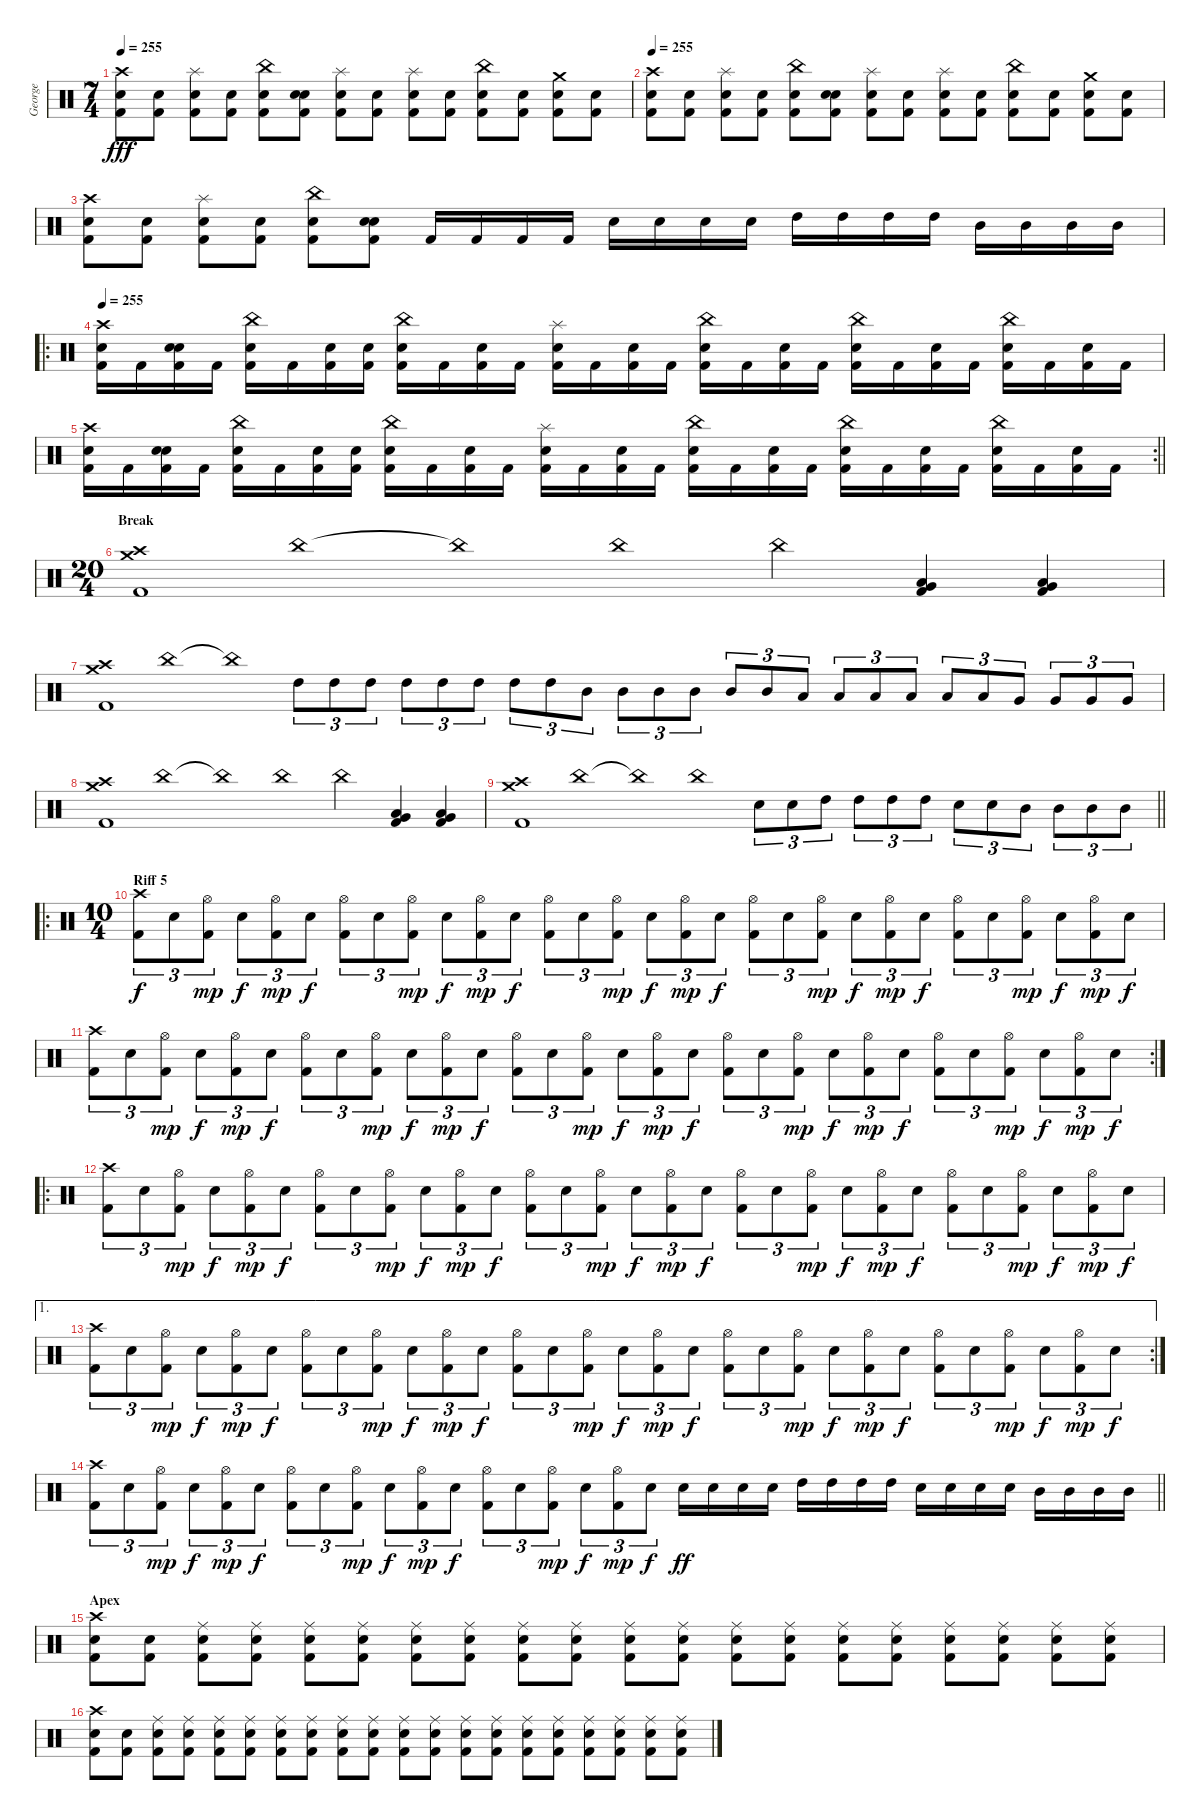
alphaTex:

\track ("George" "George") {instrument percussion}
\staff {score}
\articulation defaults
\ts (7 4)
\tempo 255
\clef neutral
\ks c
("Crash high (hit)" "Snare (hit) 2" "Kick (hit) 2").8{dy fff} ("Snare (hit) 2" "Kick (hit) 2").8 ("Splash (hit)" "Snare (hit) 2" "Kick (hit) 2").8 ("Snare (hit) 2" "Kick (hit) 2").8 ("China (hit)" "Snare (hit) 2" "Kick (hit) 2").8 ("Snare (hit)" "Snare (hit) 2" "Kick (hit) 2").8 ("Splash (hit)" "Snare (hit) 2" "Kick (hit) 2").8 ("Snare (hit) 2" "Kick (hit) 2").8 ("Splash (hit)" "Snare (hit) 2" "Kick (hit) 2").8 ("Snare (hit) 2" "Kick (hit) 2").8 ("China (hit)" "Snare (hit) 2" "Kick (hit) 2").8 ("Snare (hit) 2" "Kick (hit) 2").8 ("Crash medium (hit)" "Snare (hit) 2" "Kick (hit) 2").8 ("Snare (hit) 2" "Kick (hit) 2").8 |
\tempo 255
("Crash high (hit)" "Snare (hit) 2" "Kick (hit) 2").8 ("Snare (hit) 2" "Kick (hit) 2").8 ("Splash (hit)" "Snare (hit) 2" "Kick (hit) 2").8 ("Snare (hit) 2" "Kick (hit) 2").8 ("China (hit)" "Snare (hit) 2" "Kick (hit) 2").8 ("Snare (hit)" "Snare (hit) 2" "Kick (hit) 2").8 ("Splash (hit)" "Snare (hit) 2" "Kick (hit) 2").8 ("Snare (hit) 2" "Kick (hit) 2").8 ("Splash (hit)" "Snare (hit) 2" "Kick (hit) 2").8 ("Snare (hit) 2" "Kick (hit) 2").8 ("China (hit)" "Snare (hit) 2" "Kick (hit) 2").8 ("Snare (hit) 2" "Kick (hit) 2").8 ("Crash medium (hit)" "Snare (hit) 2" "Kick (hit) 2").8 ("Snare (hit) 2" "Kick (hit) 2").8 |
("Crash high (hit)" "Snare (hit) 2" "Kick (hit) 2").8 ("Snare (hit) 2" "Kick (hit) 2").8 ("Splash (hit)" "Snare (hit) 2" "Kick (hit) 2").8 ("Snare (hit) 2" "Kick (hit) 2").8 ("China (hit)" "Snare (hit) 2" "Kick (hit) 2").8 ("Snare (hit)" "Snare (hit) 2" "Kick (hit) 2").8 "Kick (hit) 2".16 "Kick (hit) 2".16 "Kick (hit) 2".16 "Kick (hit) 2".16 "Snare (hit) 2".16 "Snare (hit) 2".16 "Snare (hit) 2".16 "Snare (hit) 2".16 "High Tom (hit)".16 "High Tom (hit)".16 "High Tom (hit)".16 "High Tom (hit)".16 "Mid Tom (hit)".16 "Mid Tom (hit)".16 "Mid Tom (hit)".16 "Mid Tom (hit)".16 |
\ro
\tempo 255
("Crash high (hit)" "Snare (hit) 2" "Kick (hit) 2").16 "Kick (hit) 2".16 ("Snare (hit)" "Snare (hit) 2" "Kick (hit) 2").16 "Kick (hit) 2".16 ("China (hit)" "Snare (hit) 2" "Kick (hit) 2").16 "Kick (hit) 2".16 ("Snare (hit) 2" "Kick (hit) 2").16 ("Snare (hit)" "Kick (hit) 2").16 ("China (hit)" "Snare (hit) 2" "Kick (hit) 2").16 "Kick (hit) 2".16 ("Snare (hit) 2" "Kick (hit) 2").16 "Kick (hit) 2".16 ("Splash (hit)" "Snare (hit) 2" "Kick (hit) 2").16 "Kick (hit) 2".16 ("Snare (hit) 2" "Kick (hit) 2").16 "Kick (hit) 2".16 ("China (hit)" "Snare (hit) 2" "Kick (hit) 2").16 "Kick (hit) 2".16 ("Snare (hit) 2" "Kick (hit) 2").16 "Kick (hit) 2".16 ("China (hit)" "Snare (hit) 2" "Kick (hit) 2").16 "Kick (hit) 2".16 ("Snare (hit) 2" "Kick (hit) 2").16 "Kick (hit) 2".16 ("China (hit)" "Snare (hit) 2" "Kick (hit) 2").16 "Kick (hit) 2".16 ("Snare (hit) 2" "Kick (hit) 2").16 "Kick (hit) 2".16 |
\rc 2
\barLineRight lightlight
("Crash high (hit)" "Snare (hit) 2" "Kick (hit) 2").16 "Kick (hit) 2".16 ("Snare (hit)" "Snare (hit) 2" "Kick (hit) 2").16 "Kick (hit) 2".16 ("China (hit)" "Snare (hit) 2" "Kick (hit) 2").16 "Kick (hit) 2".16 ("Snare (hit) 2" "Kick (hit) 2").16 ("Snare (hit)" "Kick (hit) 2").16 ("China (hit)" "Snare (hit) 2" "Kick (hit) 2").16 "Kick (hit) 2".16 ("Snare (hit) 2" "Kick (hit) 2").16 "Kick (hit) 2".16 ("Splash (hit)" "Snare (hit) 2" "Kick (hit) 2").16 "Kick (hit) 2".16 ("Snare (hit) 2" "Kick (hit) 2").16 "Kick (hit) 2".16 ("China (hit)" "Snare (hit) 2" "Kick (hit) 2").16 "Kick (hit) 2".16 ("Snare (hit) 2" "Kick (hit) 2").16 "Kick (hit) 2".16 ("China (hit)" "Snare (hit) 2" "Kick (hit) 2").16 "Kick (hit) 2".16 ("Snare (hit) 2" "Kick (hit) 2").16 "Kick (hit) 2".16 ("China (hit)" "Snare (hit) 2" "Kick (hit) 2").16 "Kick (hit) 2".16 ("Snare (hit) 2" "Kick (hit) 2").16 "Kick (hit) 2".16 |
\ts (20 4)
\section ("" "Break")
("Crash high (hit)" "Crash medium (hit)" "Kick (hit) 2").1 "China (hit)".1 "China (hit)"{t}.1 "China (hit)".1 "China (hit)".2 ("Low Tom (hit)" "Very Low Tom (hit)" "Kick (hit) 2").4 ("Low Tom (hit)" "Very Low Tom (hit)" "Kick (hit) 2").4 |
("Crash high (hit)" "Crash medium (hit)" "Kick (hit) 2").1 "China (hit)".1 "China (hit)"{t}.1 "High Tom (hit)".8{tu (3 2)} "High Tom (hit)".8{tu (3 2)} "High Tom (hit)".8{tu (3 2)} "High Tom (hit)".8{tu (3 2)} "High Tom (hit)".8{tu (3 2)} "High Tom (hit)".8{tu (3 2)} "High Tom (hit)".8{tu (3 2)} "High Tom (hit)".8{tu (3 2)} "Mid Tom (hit)".8{tu (3 2)} "Mid Tom (hit)".8{tu (3 2)} "Mid Tom (hit)".8{tu (3 2)} "Mid Tom (hit)".8{tu (3 2)} "Mid Tom (hit)".8{tu (3 2)} "Mid Tom (hit)".8{tu (3 2)} "Low Tom (hit)".8{tu (3 2)} "Low Tom (hit)".8{tu (3 2)} "Low Tom (hit)".8{tu (3 2)} "Low Tom (hit)".8{tu (3 2)} "Low Tom (hit)".8{tu (3 2)} "Low Tom (hit)".8{tu (3 2)} "Very Low Tom (hit)".8{tu (3 2)} "Very Low Tom (hit)".8{tu (3 2)} "Very Low Tom (hit)".8{tu (3 2)} "Very Low Tom (hit)".8{tu (3 2)} |
("Crash high (hit)" "Crash medium (hit)" "Kick (hit) 2").1 "China (hit)".1 "China (hit)"{t}.1 "China (hit)".1 "China (hit)".2 ("Low Tom (hit)" "Very Low Tom (hit)" "Kick (hit) 2").4 ("Low Tom (hit)" "Very Low Tom (hit)" "Kick (hit) 2").4 |
\barLineRight lightlight
("Crash high (hit)" "Crash medium (hit)" "Kick (hit) 2").1 "China (hit)".1 "China (hit)"{t}.1 "China (hit)".1 "Snare (hit) 2".8{tu (3 2)} "Snare (hit) 2".8{tu (3 2)} "High Tom (hit)".8{tu (3 2)} "High Tom (hit)".8{tu (3 2)} "High Tom (hit)".8{tu (3 2)} "High Tom (hit)".8{tu (3 2)} "Snare (hit) 2".8{tu (3 2)} "Snare (hit) 2".8{tu (3 2)} "Mid Tom (hit)".8{tu (3 2)} "Mid Tom (hit)".8{tu (3 2)} "Mid Tom (hit)".8{tu (3 2)} "Mid Tom (hit)".8{tu (3 2)} |
\ro
\ts (10 4)
\section ("" "Riff 5")
("Crash high (hit)" "Kick (hit) 2").8{tu (3 2) dy f} "Snare (hit) 2".8{tu (3 2)} ("Hi-Hat (open)" "Kick (hit) 2").8{tu (3 2) dy mp} "Snare (hit) 2".8{tu (3 2) dy f} ("Hi-Hat (open)" "Kick (hit) 2").8{tu (3 2) dy mp} "Snare (hit) 2".8{tu (3 2) dy f} ("Hi-Hat (open)" "Kick (hit) 2").8{tu (3 2)} "Snare (hit) 2".8{tu (3 2)} ("Hi-Hat (open)" "Kick (hit) 2").8{tu (3 2) dy mp} "Snare (hit) 2".8{tu (3 2) dy f} ("Hi-Hat (open)" "Kick (hit) 2").8{tu (3 2) dy mp} "Snare (hit) 2".8{tu (3 2) dy f} ("Hi-Hat (open)" "Kick (hit) 2").8{tu (3 2)} "Snare (hit) 2".8{tu (3 2)} ("Hi-Hat (open)" "Kick (hit) 2").8{tu (3 2) dy mp} "Snare (hit) 2".8{tu (3 2) dy f} ("Hi-Hat (open)" "Kick (hit) 2").8{tu (3 2) dy mp} "Snare (hit) 2".8{tu (3 2) dy f} ("Hi-Hat (open)" "Kick (hit) 2").8{tu (3 2)} "Snare (hit) 2".8{tu (3 2)} ("Hi-Hat (open)" "Kick (hit) 2").8{tu (3 2) dy mp} "Snare (hit) 2".8{tu (3 2) dy f} ("Hi-Hat (open)" "Kick (hit) 2").8{tu (3 2) dy mp} "Snare (hit) 2".8{tu (3 2) dy f} ("Hi-Hat (open)" "Kick (hit) 2").8{tu (3 2)} "Snare (hit) 2".8{tu (3 2)} ("Hi-Hat (open)" "Kick (hit) 2").8{tu (3 2) dy mp} "Snare (hit) 2".8{tu (3 2) dy f} ("Hi-Hat (open)" "Kick (hit) 2").8{tu (3 2) dy mp} "Snare (hit) 2".8{tu (3 2) dy f} |
\rc 2
("Crash high (hit)" "Kick (hit) 2").8{tu (3 2)} "Snare (hit) 2".8{tu (3 2)} ("Hi-Hat (open)" "Kick (hit) 2").8{tu (3 2) dy mp} "Snare (hit) 2".8{tu (3 2) dy f} ("Hi-Hat (open)" "Kick (hit) 2").8{tu (3 2) dy mp} "Snare (hit) 2".8{tu (3 2) dy f} ("Hi-Hat (open)" "Kick (hit) 2").8{tu (3 2)} "Snare (hit) 2".8{tu (3 2)} ("Hi-Hat (open)" "Kick (hit) 2").8{tu (3 2) dy mp} "Snare (hit) 2".8{tu (3 2) dy f} ("Hi-Hat (open)" "Kick (hit) 2").8{tu (3 2) dy mp} "Snare (hit) 2".8{tu (3 2) dy f} ("Hi-Hat (open)" "Kick (hit) 2").8{tu (3 2)} "Snare (hit) 2".8{tu (3 2)} ("Hi-Hat (open)" "Kick (hit) 2").8{tu (3 2) dy mp} "Snare (hit) 2".8{tu (3 2) dy f} ("Hi-Hat (open)" "Kick (hit) 2").8{tu (3 2) dy mp} "Snare (hit) 2".8{tu (3 2) dy f} ("Hi-Hat (open)" "Kick (hit) 2").8{tu (3 2)} "Snare (hit) 2".8{tu (3 2)} ("Hi-Hat (open)" "Kick (hit) 2").8{tu (3 2) dy mp} "Snare (hit) 2".8{tu (3 2) dy f} ("Hi-Hat (open)" "Kick (hit) 2").8{tu (3 2) dy mp} "Snare (hit) 2".8{tu (3 2) dy f} ("Hi-Hat (open)" "Kick (hit) 2").8{tu (3 2)} "Snare (hit) 2".8{tu (3 2)} ("Hi-Hat (open)" "Kick (hit) 2").8{tu (3 2) dy mp} "Snare (hit) 2".8{tu (3 2) dy f} ("Hi-Hat (open)" "Kick (hit) 2").8{tu (3 2) dy mp} "Snare (hit) 2".8{tu (3 2) dy f} |
\ro
("Crash high (hit)" "Kick (hit) 2").8{tu (3 2)} "Snare (hit) 2".8{tu (3 2)} ("Hi-Hat (open)" "Kick (hit) 2").8{tu (3 2) dy mp} "Snare (hit) 2".8{tu (3 2) dy f} ("Hi-Hat (open)" "Kick (hit) 2").8{tu (3 2) dy mp} "Snare (hit) 2".8{tu (3 2) dy f} ("Hi-Hat (open)" "Kick (hit) 2").8{tu (3 2)} "Snare (hit) 2".8{tu (3 2)} ("Hi-Hat (open)" "Kick (hit) 2").8{tu (3 2) dy mp} "Snare (hit) 2".8{tu (3 2) dy f} ("Hi-Hat (open)" "Kick (hit) 2").8{tu (3 2) dy mp} "Snare (hit) 2".8{tu (3 2) dy f} ("Hi-Hat (open)" "Kick (hit) 2").8{tu (3 2)} "Snare (hit) 2".8{tu (3 2)} ("Hi-Hat (open)" "Kick (hit) 2").8{tu (3 2) dy mp} "Snare (hit) 2".8{tu (3 2) dy f} ("Hi-Hat (open)" "Kick (hit) 2").8{tu (3 2) dy mp} "Snare (hit) 2".8{tu (3 2) dy f} ("Hi-Hat (open)" "Kick (hit) 2").8{tu (3 2)} "Snare (hit) 2".8{tu (3 2)} ("Hi-Hat (open)" "Kick (hit) 2").8{tu (3 2) dy mp} "Snare (hit) 2".8{tu (3 2) dy f} ("Hi-Hat (open)" "Kick (hit) 2").8{tu (3 2) dy mp} "Snare (hit) 2".8{tu (3 2) dy f} ("Hi-Hat (open)" "Kick (hit) 2").8{tu (3 2)} "Snare (hit) 2".8{tu (3 2)} ("Hi-Hat (open)" "Kick (hit) 2").8{tu (3 2) dy mp} "Snare (hit) 2".8{tu (3 2) dy f} ("Hi-Hat (open)" "Kick (hit) 2").8{tu (3 2) dy mp} "Snare (hit) 2".8{tu (3 2) dy f} |
\ae 1
\rc 2
("Crash high (hit)" "Kick (hit) 2").8{tu (3 2)} "Snare (hit) 2".8{tu (3 2)} ("Hi-Hat (open)" "Kick (hit) 2").8{tu (3 2) dy mp} "Snare (hit) 2".8{tu (3 2) dy f} ("Hi-Hat (open)" "Kick (hit) 2").8{tu (3 2) dy mp} "Snare (hit) 2".8{tu (3 2) dy f} ("Hi-Hat (open)" "Kick (hit) 2").8{tu (3 2)} "Snare (hit) 2".8{tu (3 2)} ("Hi-Hat (open)" "Kick (hit) 2").8{tu (3 2) dy mp} "Snare (hit) 2".8{tu (3 2) dy f} ("Hi-Hat (open)" "Kick (hit) 2").8{tu (3 2) dy mp} "Snare (hit) 2".8{tu (3 2) dy f} ("Hi-Hat (open)" "Kick (hit) 2").8{tu (3 2)} "Snare (hit) 2".8{tu (3 2)} ("Hi-Hat (open)" "Kick (hit) 2").8{tu (3 2) dy mp} "Snare (hit) 2".8{tu (3 2) dy f} ("Hi-Hat (open)" "Kick (hit) 2").8{tu (3 2) dy mp} "Snare (hit) 2".8{tu (3 2) dy f} ("Hi-Hat (open)" "Kick (hit) 2").8{tu (3 2)} "Snare (hit) 2".8{tu (3 2)} ("Hi-Hat (open)" "Kick (hit) 2").8{tu (3 2) dy mp} "Snare (hit) 2".8{tu (3 2) dy f} ("Hi-Hat (open)" "Kick (hit) 2").8{tu (3 2) dy mp} "Snare (hit) 2".8{tu (3 2) dy f} ("Hi-Hat (open)" "Kick (hit) 2").8{tu (3 2)} "Snare (hit) 2".8{tu (3 2)} ("Hi-Hat (open)" "Kick (hit) 2").8{tu (3 2) dy mp} "Snare (hit) 2".8{tu (3 2) dy f} ("Hi-Hat (open)" "Kick (hit) 2").8{tu (3 2) dy mp} "Snare (hit) 2".8{tu (3 2) dy f} |
\barLineRight lightlight
("Crash high (hit)" "Kick (hit) 2").8{tu (3 2)} "Snare (hit) 2".8{tu (3 2)} ("Hi-Hat (open)" "Kick (hit) 2").8{tu (3 2) dy mp} "Snare (hit) 2".8{tu (3 2) dy f} ("Hi-Hat (open)" "Kick (hit) 2").8{tu (3 2) dy mp} "Snare (hit) 2".8{tu (3 2) dy f} ("Hi-Hat (open)" "Kick (hit) 2").8{tu (3 2)} "Snare (hit) 2".8{tu (3 2)} ("Hi-Hat (open)" "Kick (hit) 2").8{tu (3 2) dy mp} "Snare (hit) 2".8{tu (3 2) dy f} ("Hi-Hat (open)" "Kick (hit) 2").8{tu (3 2) dy mp} "Snare (hit) 2".8{tu (3 2) dy f} ("Hi-Hat (open)" "Kick (hit) 2").8{tu (3 2)} "Snare (hit) 2".8{tu (3 2)} ("Hi-Hat (open)" "Kick (hit) 2").8{tu (3 2) dy mp} "Snare (hit) 2".8{tu (3 2) dy f} ("Hi-Hat (open)" "Kick (hit) 2").8{tu (3 2) dy mp} "Snare (hit) 2".8{tu (3 2) dy f} "Snare (hit) 2".16{dy ff} "Snare (hit) 2".16 "Snare (hit) 2".16 "Snare (hit) 2".16 "High Tom (hit)".16 "High Tom (hit)".16 "High Tom (hit)".16 "High Tom (hit)".16 "Snare (hit) 2".16 "Snare (hit) 2".16 "Snare (hit) 2".16 "Snare (hit) 2".16 "Mid Tom (hit)".16 "Mid Tom (hit)".16 "Mid Tom (hit)".16 "Mid Tom (hit)".16 |
\section ("" "Apex")
("Crash high (hit)" "Snare (hit) 2" "Kick (hit) 2").8 ("Snare (hit) 2" "Kick (hit) 2").8 ("Ride (middle)" "Snare (hit) 2" "Kick (hit) 2").8 ("Ride (middle)" "Snare (hit) 2" "Kick (hit) 2").8 ("Ride (middle)" "Snare (hit) 2" "Kick (hit) 2").8 ("Ride (middle)" "Snare (hit) 2" "Kick (hit) 2").8 ("Ride (middle)" "Snare (hit) 2" "Kick (hit) 2").8 ("Ride (middle)" "Snare (hit) 2" "Kick (hit) 2").8 ("Ride (middle)" "Snare (hit) 2" "Kick (hit) 2").8 ("Ride (middle)" "Snare (hit) 2" "Kick (hit) 2").8 ("Ride (middle)" "Snare (hit) 2" "Kick (hit) 2").8 ("Ride (middle)" "Snare (hit) 2" "Kick (hit) 2").8 ("Ride (middle)" "Snare (hit) 2" "Kick (hit) 2").8 ("Ride (middle)" "Snare (hit) 2" "Kick (hit) 2").8 ("Ride (middle)" "Snare (hit) 2" "Kick (hit) 2").8 ("Ride (middle)" "Snare (hit) 2" "Kick (hit) 2").8 ("Ride (middle)" "Snare (hit) 2" "Kick (hit) 2").8 ("Ride (middle)" "Snare (hit) 2" "Kick (hit) 2").8 ("Ride (middle)" "Snare (hit) 2" "Kick (hit) 2").8 ("Ride (middle)" "Snare (hit) 2" "Kick (hit) 2").8 |
("Crash high (hit)" "Snare (hit) 2" "Kick (hit) 2").8 ("Snare (hit) 2" "Kick (hit) 2").8 ("Ride (middle)" "Snare (hit) 2" "Kick (hit) 2").8 ("Ride (middle)" "Snare (hit) 2" "Kick (hit) 2").8 ("Ride (middle)" "Snare (hit) 2" "Kick (hit) 2").8 ("Ride (middle)" "Snare (hit) 2" "Kick (hit) 2").8 ("Ride (middle)" "Snare (hit) 2" "Kick (hit) 2").8 ("Ride (middle)" "Snare (hit) 2" "Kick (hit) 2").8 ("Ride (middle)" "Snare (hit) 2" "Kick (hit) 2").8 ("Ride (middle)" "Snare (hit) 2" "Kick (hit) 2").8 ("Ride (middle)" "Snare (hit) 2" "Kick (hit) 2").8 ("Ride (middle)" "Snare (hit) 2" "Kick (hit) 2").8 ("Ride (middle)" "Snare (hit) 2" "Kick (hit) 2").8 ("Ride (middle)" "Snare (hit) 2" "Kick (hit) 2").8 ("Ride (middle)" "Snare (hit) 2" "Kick (hit) 2").8 ("Ride (middle)" "Snare (hit) 2" "Kick (hit) 2").8 ("Ride (middle)" "Snare (hit) 2" "Kick (hit) 2").8 ("Ride (middle)" "Snare (hit) 2" "Kick (hit) 2").8 ("Ride (middle)" "Snare (hit) 2" "Kick (hit) 2").8 ("Ride (middle)" "Snare (hit) 2" "Kick (hit) 2").8
